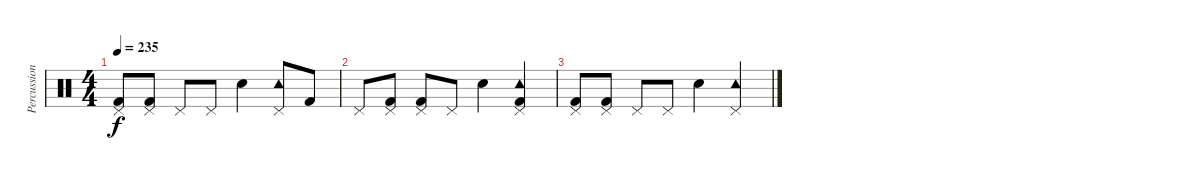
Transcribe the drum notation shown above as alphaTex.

\track ("Percussion" "Percussion") {instrument percussion}
\staff {score}
\articulation defaults
\ts (4 4)
\tempo 235
\clef neutral
\ks c
("Kick (hit) 2" "Pedal Hi-Hat (hit)").8{dy f} ("Kick (hit) 2" "Pedal Hi-Hat (hit)").8 "Pedal Hi-Hat (hit)".8 "Pedal Hi-Hat (hit)".8 "Snare (hit) 2".4 ("Pedal Hi-Hat (hit)" "Tambourine (hit)").8 "Kick (hit) 2".8 |
"Pedal Hi-Hat (hit)".8 ("Pedal Hi-Hat (hit)" "Kick (hit) 2").8 ("Pedal Hi-Hat (hit)" "Kick (hit) 2").8 "Pedal Hi-Hat (hit)".8 "Snare (hit) 2".4 ("Kick (hit) 2" "Pedal Hi-Hat (hit)" "Tambourine (hit)").4 |
("Kick (hit) 2" "Pedal Hi-Hat (hit)").8 ("Kick (hit) 2" "Pedal Hi-Hat (hit)").8 "Pedal Hi-Hat (hit)".8 "Pedal Hi-Hat (hit)".8 "Snare (hit) 2".4 ("Pedal Hi-Hat (hit)" "Tambourine (hit)").4
